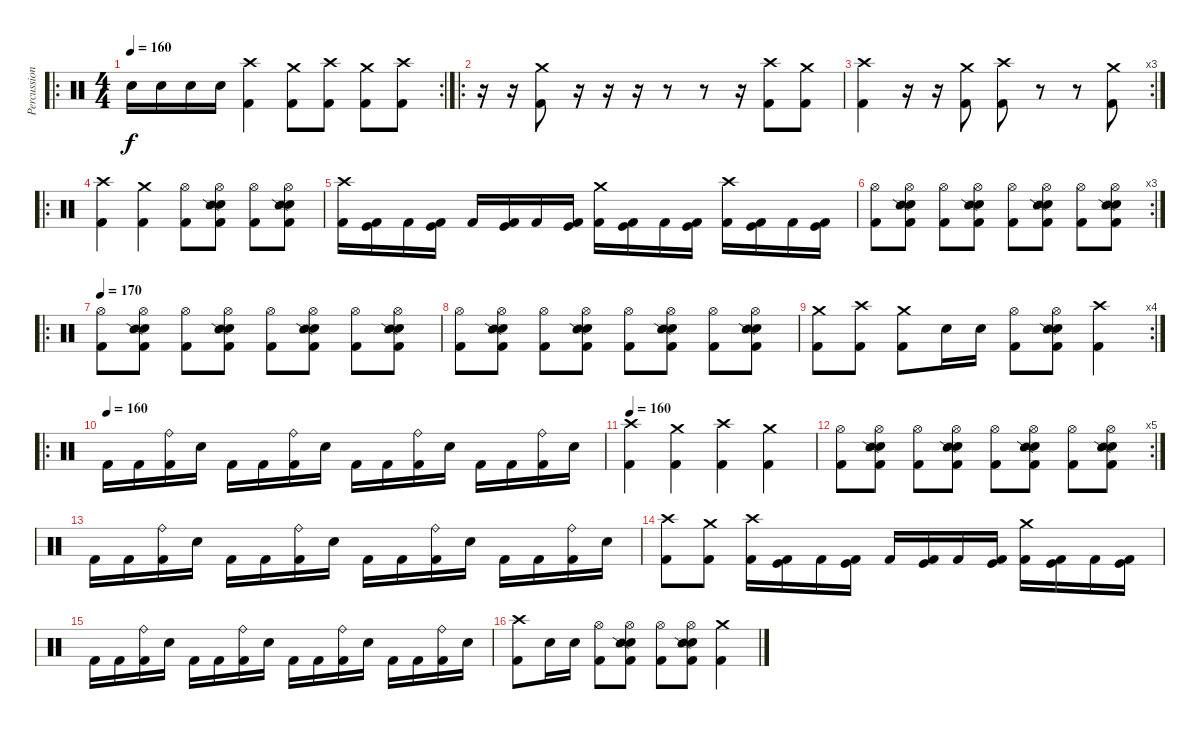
\track ("Percussion" "Percussion") {instrument percussion}
\staff {score}
\articulation defaults
\ro
\rc 2
\ts (4 4)
\tempo 160
\clef neutral
\ks c "Electric Snare (hit)".16{dy f} "Electric Snare (hit)".16 "Electric Snare (hit)".16 "Electric Snare (hit)".16
("Crash high (hit)" "Kick (hit) 2").4 ("Crash medium (hit)" "Kick (hit) 2").8 ("Crash high (hit)" "Kick (hit) 2").8 ("Crash medium (hit)" "Kick (hit) 2").8 ("Crash high (hit)" "Kick (hit) 2").8 |
\ro
r.16 r.16 ("Crash medium (hit)" "Kick (hit) 2").8 r.16 r.16 r.16 r.8 r.8 r.16 ("Crash high (hit)" "Kick (hit) 2").8 ("Crash medium (hit)" "Kick (hit) 2").8 |
\rc 3
("Crash high (hit)" "Kick (hit) 2").4 r.16 r.16 ("Crash medium (hit)" "Kick (hit) 2").8 ("Crash high (hit)" "Kick (hit) 2").8 r.8 r.8 ("Crash medium (hit)" "Kick (hit) 2").8 |
\ro
("Crash high (hit)" "Kick (hit) 2").4 ("Crash medium (hit)" "Kick (hit) 2").4 ("Hi-Hat (open)" "Kick (hit) 2").8 ("Hi-Hat (open)" "Electric Snare (hit)" "Snare (side stick) 2" "Kick (hit) 2").8 ("Hi-Hat (open)" "Kick (hit) 2").8 ("Hi-Hat (open)" "Electric Snare (hit)" "Snare (side stick) 2" "Kick (hit) 2").8 |
("Crash high (hit)" "Kick (hit) 2").16 ("Kick (hit)" "Kick (hit) 2").16 "Kick (hit) 2".16 ("Kick (hit)" "Kick (hit) 2").16 "Kick (hit) 2".16 ("Kick (hit)" "Kick (hit) 2").16 "Kick (hit) 2".16 ("Kick (hit)" "Kick (hit) 2").16 ("Crash medium (hit)" "Kick (hit) 2").16 ("Kick (hit)" "Kick (hit) 2").16 "Kick (hit) 2".16 ("Kick (hit)" "Kick (hit) 2").16 ("Crash high (hit)" "Kick (hit) 2").16 ("Kick (hit)" "Kick (hit) 2").16 "Kick (hit) 2".16 ("Kick (hit)" "Kick (hit) 2").16 |
\rc 3
("Hi-Hat (open)" "Kick (hit) 2").8 ("Hi-Hat (open)" "Electric Snare (hit)" "Snare (side stick) 2" "Kick (hit) 2").8 ("Hi-Hat (open)" "Kick (hit) 2").8 ("Hi-Hat (open)" "Electric Snare (hit)" "Snare (side stick) 2" "Kick (hit) 2").8 ("Hi-Hat (open)" "Kick (hit) 2").8 ("Hi-Hat (open)" "Electric Snare (hit)" "Snare (side stick) 2" "Kick (hit) 2").8 ("Hi-Hat (open)" "Kick (hit) 2").8 ("Hi-Hat (open)" "Electric Snare (hit)" "Snare (side stick) 2" "Kick (hit) 2").8 |
\ro
\tempo 170
("Hi-Hat (open)" "Kick (hit) 2").8 ("Hi-Hat (open)" "Electric Snare (hit)" "Snare (side stick) 2" "Kick (hit) 2").8 ("Hi-Hat (open)" "Kick (hit) 2").8 ("Hi-Hat (open)" "Electric Snare (hit)" "Snare (side stick) 2" "Kick (hit) 2").8 ("Hi-Hat (open)" "Kick (hit) 2").8 ("Hi-Hat (open)" "Electric Snare (hit)" "Snare (side stick) 2" "Kick (hit) 2").8 ("Hi-Hat (open)" "Kick (hit) 2").8 ("Hi-Hat (open)" "Electric Snare (hit)" "Snare (side stick) 2" "Kick (hit) 2").8 |
("Hi-Hat (open)" "Kick (hit) 2").8 ("Hi-Hat (open)" "Electric Snare (hit)" "Snare (side stick) 2" "Kick (hit) 2").8 ("Hi-Hat (open)" "Kick (hit) 2").8 ("Hi-Hat (open)" "Electric Snare (hit)" "Snare (side stick) 2" "Kick (hit) 2").8 ("Hi-Hat (open)" "Kick (hit) 2").8 ("Hi-Hat (open)" "Electric Snare (hit)" "Snare (side stick) 2" "Kick (hit) 2").8 ("Hi-Hat (open)" "Kick (hit) 2").8 ("Hi-Hat (open)" "Electric Snare (hit)" "Snare (side stick) 2" "Kick (hit) 2").8 |
\rc 4
("Crash medium (hit)" "Kick (hit) 2").8 ("Crash high (hit)" "Kick (hit) 2").8 ("Crash medium (hit)" "Kick (hit) 2").8 "Electric Snare (hit)".16 "Electric Snare (hit)".16 ("Hi-Hat (open)" "Kick (hit) 2").8 ("Hi-Hat (open)" "Electric Snare (hit)" "Snare (side stick) 2" "Kick (hit) 2").8 ("Crash high (hit)" "Kick (hit) 2").4 |
\ro
\tempo (160)
"Kick (hit) 2".16 "Kick (hit) 2".16 ("Ride (bell)" "Kick (hit) 2").16 "Electric Snare (hit)".16 "Kick (hit) 2".16 "Kick (hit) 2".16 ("Ride (bell)" "Kick (hit) 2").16 "Electric Snare (hit)".16 "Kick (hit) 2".16 "Kick (hit) 2".16 ("Ride (bell)" "Kick (hit) 2").16 "Electric Snare (hit)".16 "Kick (hit) 2".16 "Kick (hit) 2".16 ("Ride (bell)" "Kick (hit) 2").16 "Electric Snare (hit)".16 |
\tempo 160
("Crash high (hit)" "Kick (hit) 2").4 ("Crash medium (hit)" "Kick (hit) 2").4 ("Crash high (hit)" "Kick (hit) 2").4 ("Crash medium (hit)" "Kick (hit) 2").4 |
\rc 5
("Hi-Hat (open)" "Kick (hit) 2").8 ("Hi-Hat (open)" "Electric Snare (hit)" "Snare (side stick) 2" "Kick (hit) 2").8 ("Hi-Hat (open)" "Kick (hit) 2").8 ("Hi-Hat (open)" "Electric Snare (hit)" "Snare (side stick) 2" "Kick (hit) 2").8 ("Hi-Hat (open)" "Kick (hit) 2").8 ("Hi-Hat (open)" "Electric Snare (hit)" "Snare (side stick) 2" "Kick (hit) 2").8 ("Hi-Hat (open)" "Kick (hit) 2").8 ("Hi-Hat (open)" "Electric Snare (hit)" "Snare (side stick) 2" "Kick (hit) 2").8 |
"Kick (hit) 2".16 "Kick (hit) 2".16 ("Ride (bell)" "Kick (hit) 2").16 "Electric Snare (hit)".16 "Kick (hit) 2".16 "Kick (hit) 2".16 ("Ride (bell)" "Kick (hit) 2").16 "Electric Snare (hit)".16 "Kick (hit) 2".16 "Kick (hit) 2".16 ("Ride (bell)" "Kick (hit) 2").16 "Electric Snare (hit)".16 "Kick (hit) 2".16 "Kick (hit) 2".16 ("Ride (bell)" "Kick (hit) 2").16 "Electric Snare (hit)".16 |
("Crash high (hit)" "Kick (hit) 2").8 ("Crash medium (hit)" "Kick (hit) 2").8 ("Crash high (hit)" "Kick (hit) 2").16 ("Kick (hit)" "Kick (hit) 2").16 "Kick (hit) 2".16 ("Kick (hit)" "Kick (hit) 2").16 "Kick (hit) 2".16 ("Kick (hit)" "Kick (hit) 2").16 "Kick (hit) 2".16 ("Kick (hit)" "Kick (hit) 2").16 ("Crash medium (hit)" "Kick (hit) 2").16 ("Kick (hit)" "Kick (hit) 2").16 "Kick (hit) 2".16 ("Kick (hit)" "Kick (hit) 2").16 |
"Kick (hit) 2".16 "Kick (hit) 2".16 ("Ride (bell)" "Kick (hit) 2").16 "Electric Snare (hit)".16 "Kick (hit) 2".16 "Kick (hit) 2".16 ("Ride (bell)" "Kick (hit) 2").16 "Electric Snare (hit)".16 "Kick (hit) 2".16 "Kick (hit) 2".16 ("Ride (bell)" "Kick (hit) 2").16 "Electric Snare (hit)".16 "Kick (hit) 2".16 "Kick (hit) 2".16 ("Ride (bell)" "Kick (hit) 2").16 "Electric Snare (hit)".16 |
("Crash high (hit)" "Kick (hit) 2").8 "Electric Snare (hit)".16 "Electric Snare (hit)".16 ("Hi-Hat (open)" "Kick (hit) 2").8 ("Hi-Hat (open)" "Electric Snare (hit)" "Snare (side stick) 2" "Kick (hit) 2").8 ("Hi-Hat (open)" "Kick (hit) 2").8 ("Hi-Hat (open)" "Electric Snare (hit)" "Snare (side stick) 2" "Kick (hit) 2").8 ("Crash medium (hit)" "Kick (hit) 2").4
